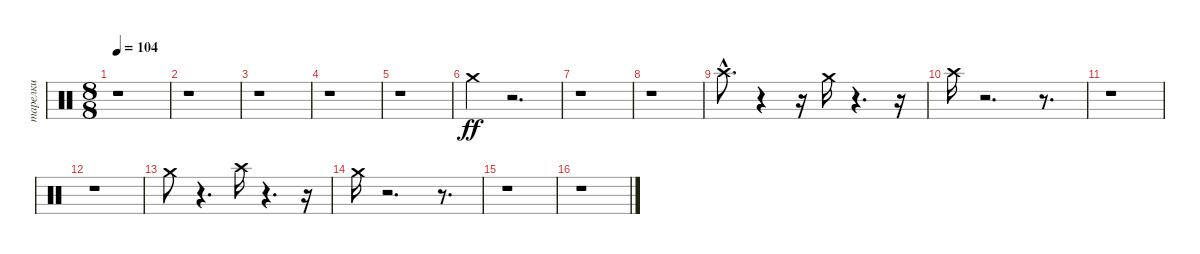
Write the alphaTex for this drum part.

\track ("тарелки" "тарелки") {instrument percussion}
\staff {score}
\articulation defaults
\ts (8 8)
\tempo 104
\clef neutral
\ks c
r.1{dy ff} |
r.1 |
r.1 |
r.1 |
r.1 |
"Crash medium (hit)".4 r.2{d} |
r.1 |
r.1 |
"Crash high (hit)"{hac}.8{d} r.4 r.16 "Crash medium (hit)".16 r.4{d} r.16 |
"Crash high (hit)".16 r.2{d} r.8{d} |
r.1 |
r.1 |
"Crash medium (hit)".8 r.4{d} "Crash high (hit)".16 r.4{d} r.16 |
"Crash medium (hit)".16 r.2{d} r.8{d} |
r.1 |
r.1
